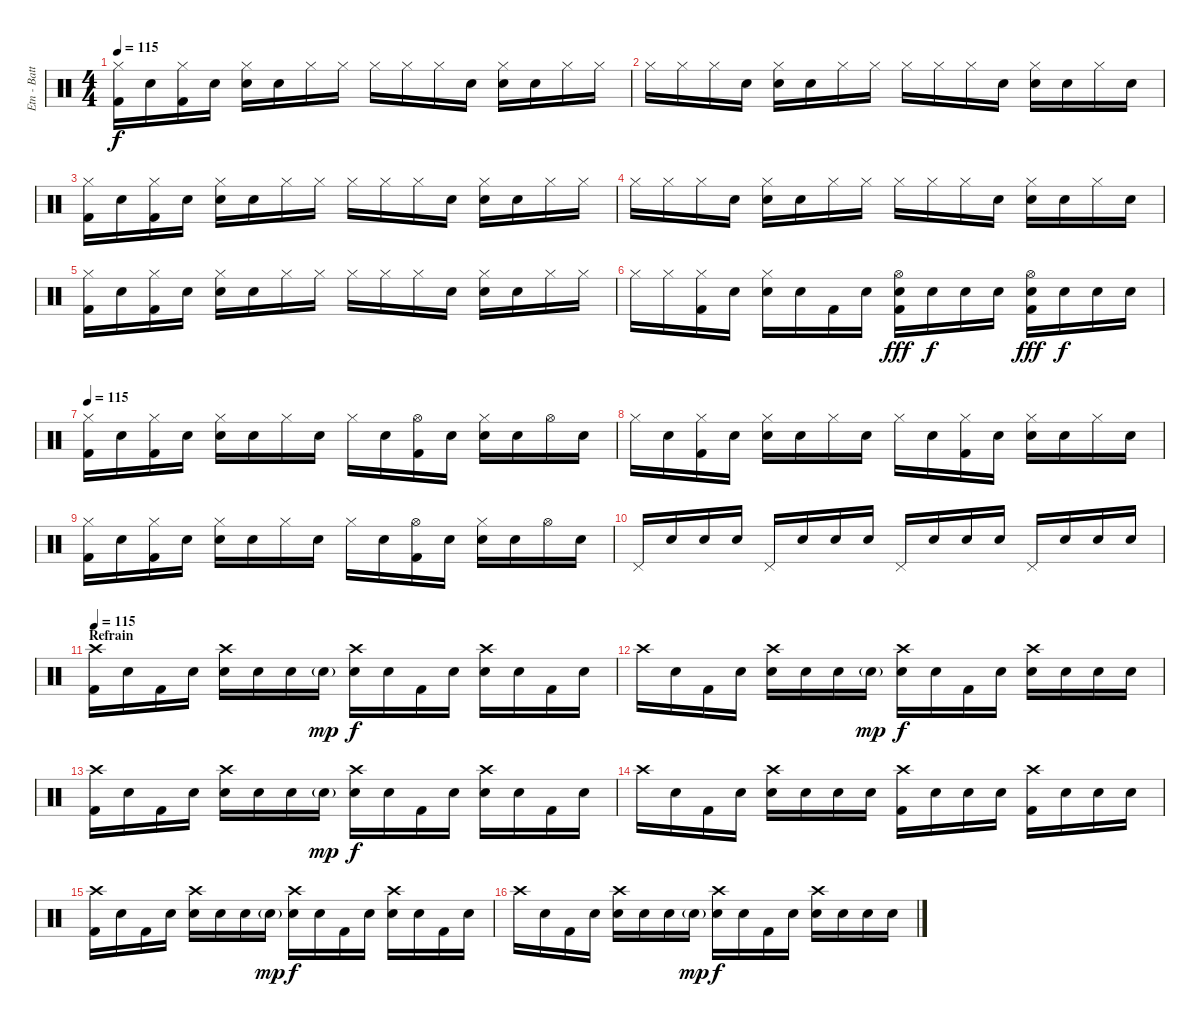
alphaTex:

\track ("Etn - Batterie" "Etn - Batt") {instrument percussion}
\staff {score}
\articulation defaults
\ts (4 4)
\tempo 115
\clef neutral
\ks c
("Hi-Hat (closed)" "Kick (hit) 2").16{dy f} "Snare (hit)".16 ("Hi-Hat (closed)" "Kick (hit) 2").16 "Snare (hit)".16 ("Hi-Hat (closed)" "Electric Snare (hit)").16 "Snare (hit)".16 "Hi-Hat (closed)".16 "Hi-Hat (closed)".16 "Hi-Hat (closed)".16 "Hi-Hat (closed)".16 "Hi-Hat (closed)".16 "Snare (hit)".16 ("Hi-Hat (closed)" "Electric Snare (hit)").16 "Snare (hit)".16 "Hi-Hat (closed)".16 "Hi-Hat (closed)".16 |
"Hi-Hat (closed)".16 "Hi-Hat (closed)".16 "Hi-Hat (closed)".16 "Snare (hit)".16 ("Hi-Hat (closed)" "Electric Snare (hit)").16 "Snare (hit)".16 "Hi-Hat (closed)".16 "Hi-Hat (closed)".16 "Hi-Hat (closed)".16 "Hi-Hat (closed)".16 "Hi-Hat (closed)".16 "Snare (hit)".16 ("Hi-Hat (closed)" "Electric Snare (hit)").16 "Snare (hit)".16 "Hi-Hat (closed)".16 "Snare (hit)".16 |
("Hi-Hat (closed)" "Kick (hit) 2").16 "Snare (hit)".16 ("Hi-Hat (closed)" "Kick (hit) 2").16 "Snare (hit)".16 ("Hi-Hat (closed)" "Electric Snare (hit)").16 "Snare (hit)".16 "Hi-Hat (closed)".16 "Hi-Hat (closed)".16 "Hi-Hat (closed)".16 "Hi-Hat (closed)".16 "Hi-Hat (closed)".16 "Snare (hit)".16 ("Hi-Hat (closed)" "Electric Snare (hit)").16 "Snare (hit)".16 "Hi-Hat (closed)".16 "Hi-Hat (closed)".16 |
"Hi-Hat (closed)".16 "Hi-Hat (closed)".16 "Hi-Hat (closed)".16 "Snare (hit)".16 ("Hi-Hat (closed)" "Electric Snare (hit)").16 "Snare (hit)".16 "Hi-Hat (closed)".16 "Hi-Hat (closed)".16 "Hi-Hat (closed)".16 "Hi-Hat (closed)".16 "Hi-Hat (closed)".16 "Snare (hit)".16 ("Hi-Hat (closed)" "Electric Snare (hit)").16 "Snare (hit)".16 "Hi-Hat (closed)".16 "Snare (hit)".16 |
("Hi-Hat (closed)" "Kick (hit) 2").16 "Snare (hit)".16 ("Hi-Hat (closed)" "Kick (hit) 2").16 "Snare (hit)".16 ("Hi-Hat (closed)" "Electric Snare (hit)").16 "Snare (hit)".16 "Hi-Hat (closed)".16 "Hi-Hat (closed)".16 "Hi-Hat (closed)".16 "Hi-Hat (closed)".16 "Hi-Hat (closed)".16 "Snare (hit)".16 ("Hi-Hat (closed)" "Electric Snare (hit)").16 "Snare (hit)".16 "Hi-Hat (closed)".16 "Hi-Hat (closed)".16 |
"Hi-Hat (closed)".16 "Hi-Hat (closed)".16 ("Hi-Hat (closed)" "Kick (hit) 2").16 "Snare (hit)".16 ("Hi-Hat (closed)" "Electric Snare (hit)").16 "Snare (hit)".16 "Kick (hit) 2".16 "Snare (hit)".16 ("Hi-Hat (open)" "Electric Snare (hit)" "Kick (hit) 2").16{dy fff} "Snare (hit)".16{dy f} "Snare (hit)".16 "Snare (hit)".16 ("Hi-Hat (open)" "Electric Snare (hit)" "Kick (hit) 2").16{dy fff} "Snare (hit)".16{dy f} "Snare (hit)".16 "Snare (hit)".16 |
\section ("" "")
\tempo 115
("Hi-Hat (closed)" "Kick (hit) 2").16{volume 12 balance 8} "Snare (hit)".16 ("Hi-Hat (closed)" "Kick (hit) 2").16 "Snare (hit)".16 ("Hi-Hat (closed)" "Electric Snare (hit)").16 "Snare (hit)".16 "Hi-Hat (closed)".16 "Snare (hit)".16 "Hi-Hat (closed)".16 "Snare (hit)".16 ("Hi-Hat (open)" "Kick (hit) 2").16 "Snare (hit)".16 ("Hi-Hat (closed)" "Electric Snare (hit)").16 "Snare (hit)".16 "Hi-Hat (open)".16 "Snare (hit)".16 |
"Hi-Hat (closed)".16 "Snare (hit)".16 ("Hi-Hat (closed)" "Kick (hit) 2").16 "Snare (hit)".16 ("Hi-Hat (closed)" "Electric Snare (hit)").16 "Snare (hit)".16 "Hi-Hat (closed)".16 "Snare (hit)".16 "Hi-Hat (closed)".16 "Snare (hit)".16 ("Hi-Hat (closed)" "Kick (hit) 2").16 "Snare (hit)".16 ("Hi-Hat (closed)" "Electric Snare (hit)").16 "Snare (hit)".16 "Hi-Hat (closed)".16 "Snare (hit)".16 |
("Hi-Hat (closed)" "Kick (hit) 2").16 "Snare (hit)".16 ("Hi-Hat (closed)" "Kick (hit) 2").16 "Snare (hit)".16 ("Hi-Hat (closed)" "Electric Snare (hit)").16 "Snare (hit)".16 "Hi-Hat (closed)".16 "Snare (hit)".16 "Hi-Hat (closed)".16 "Snare (hit)".16 ("Hi-Hat (open)" "Kick (hit) 2").16 "Snare (hit)".16 ("Hi-Hat (closed)" "Electric Snare (hit)").16 "Snare (hit)".16 "Hi-Hat (open)".16 "Snare (hit)".16 |
"Pedal Hi-Hat (hit)".16 "Snare (hit)".16 "Snare (hit)".16 "Snare (hit)".16 "Pedal Hi-Hat (hit)".16 "Snare (hit)".16 "Snare (hit)".16 "Snare (hit)".16 "Pedal Hi-Hat (hit)".16 "Snare (hit)".16 "Snare (hit)".16 "Snare (hit)".16 "Pedal Hi-Hat (hit)".16 "Snare (hit)".16 "Snare (hit)".16 "Snare (hit)".16 |
\section ("" "Refrain")
\tempo 115
("Crash high (hit)" "Kick (hit) 2").16{volume 16 balance 8} "Snare (hit)".16 "Kick (hit) 2".16 "Snare (hit)".16 ("Crash high (hit)" "Electric Snare (hit)").16 "Snare (hit)".16 "Snare (hit)".16 "Electric Snare (hit)"{g}.16{dy mp} ("Crash high (hit)" "Electric Snare (hit)").16{dy f} "Snare (hit)".16 "Kick (hit) 2".16 "Snare (hit)".16 ("Crash high (hit)" "Electric Snare (hit)").16 "Snare (hit)".16 "Kick (hit) 2".16 "Snare (hit)".16 |
"Crash high (hit)".16 "Snare (hit)".16 "Kick (hit) 2".16 "Snare (hit)".16 ("Crash high (hit)" "Electric Snare (hit)").16 "Snare (hit)".16 "Snare (hit)".16 "Electric Snare (hit)"{g}.16{dy mp} ("Crash high (hit)" "Electric Snare (hit)").16{dy f} "Snare (hit)".16 "Kick (hit) 2".16 "Snare (hit)".16 ("Crash high (hit)" "Electric Snare (hit)").16 "Snare (hit)".16 "Electric Snare (hit)".16 "Electric Snare (hit)".16 |
("Crash high (hit)" "Kick (hit) 2").16 "Snare (hit)".16 "Kick (hit) 2".16 "Snare (hit)".16 ("Crash high (hit)" "Electric Snare (hit)").16 "Snare (hit)".16 "Snare (hit)".16 "Electric Snare (hit)"{g}.16{dy mp} ("Crash high (hit)" "Electric Snare (hit)").16{dy f} "Snare (hit)".16 "Kick (hit) 2".16 "Snare (hit)".16 ("Crash high (hit)" "Electric Snare (hit)").16 "Snare (hit)".16 "Kick (hit) 2".16 "Snare (hit)".16 |
"Crash high (hit)".16 "Snare (hit)".16 "Kick (hit) 2".16 "Snare (hit)".16 ("Crash high (hit)" "Electric Snare (hit)").16 "Snare (hit)".16 "Snare (hit)".16 "Snare (hit)".16 ("Crash high (hit)" "Kick (hit) 2").16 "Snare (hit)".16 "Electric Snare (hit)".16 "Snare (hit)".16 ("Crash high (hit)" "Kick (hit) 2").16 "Snare (hit)".16 "Electric Snare (hit)".16 "Snare (hit)".16 |
("Crash high (hit)" "Kick (hit) 2").16 "Snare (hit)".16 "Kick (hit) 2".16 "Snare (hit)".16 ("Crash high (hit)" "Electric Snare (hit)").16 "Snare (hit)".16 "Snare (hit)".16 "Electric Snare (hit)"{g}.16{dy mp} ("Crash high (hit)" "Electric Snare (hit)").16{dy f} "Snare (hit)".16 "Kick (hit) 2".16 "Snare (hit)".16 ("Crash high (hit)" "Electric Snare (hit)").16 "Snare (hit)".16 "Kick (hit) 2".16 "Snare (hit)".16 |
"Crash high (hit)".16 "Snare (hit)".16 "Kick (hit) 2".16 "Snare (hit)".16 ("Crash high (hit)" "Electric Snare (hit)").16 "Snare (hit)".16 "Snare (hit)".16 "Electric Snare (hit)"{g}.16{dy mp} ("Crash high (hit)" "Electric Snare (hit)").16{dy f} "Snare (hit)".16 "Kick (hit) 2".16 "Snare (hit)".16 ("Crash high (hit)" "Electric Snare (hit)").16 "Snare (hit)".16 "Electric Snare (hit)".16 "Electric Snare (hit)".16
